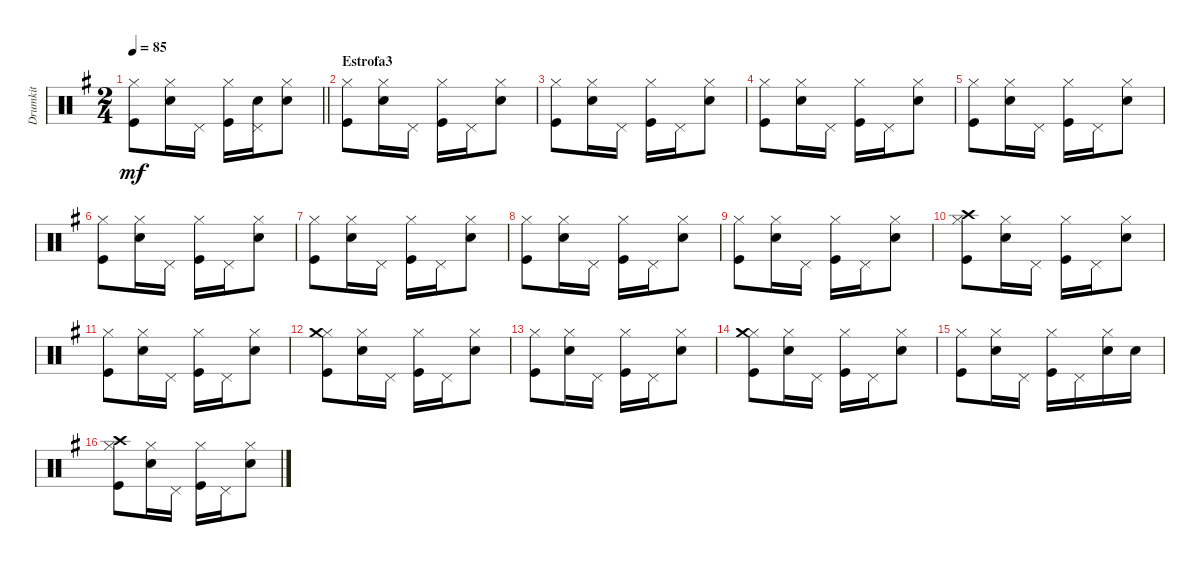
\track ("Drumkit" "Drumkit") {instrument percussion}
\staff {score}
\articulation defaults
\ts (2 4)
\tempo 85
\clef neutral
\barLineRight lightlight
\ks g
("Kick (hit)" "Hi-Hat (closed)").8{dy mf} ("Snare (hit) 2" "Hi-Hat (closed)").16 "Pedal Hi-Hat (hit)".16 ("Kick (hit)" "Hi-Hat (closed)").16 ("Pedal Hi-Hat (hit)" "Snare (hit) 2").16 ("Snare (hit) 2" "Hi-Hat (closed)").8 |
\section ("" "Estrofa3")
("Kick (hit)" "Hi-Hat (closed)").8 ("Snare (hit) 2" "Hi-Hat (closed)").16 "Pedal Hi-Hat (hit)".16 ("Kick (hit)" "Hi-Hat (closed)").16 "Pedal Hi-Hat (hit)".16 ("Snare (hit) 2" "Hi-Hat (closed)").8 |
("Kick (hit)" "Hi-Hat (closed)").8 ("Snare (hit) 2" "Hi-Hat (closed)").16 "Pedal Hi-Hat (hit)".16 ("Kick (hit)" "Hi-Hat (closed)").16 "Pedal Hi-Hat (hit)".16 ("Snare (hit) 2" "Hi-Hat (closed)").8 |
("Kick (hit)" "Hi-Hat (closed)").8 ("Snare (hit) 2" "Hi-Hat (closed)").16 "Pedal Hi-Hat (hit)".16 ("Kick (hit)" "Hi-Hat (closed)").16 "Pedal Hi-Hat (hit)".16 ("Snare (hit) 2" "Hi-Hat (closed)").8 |
("Kick (hit)" "Hi-Hat (closed)").8 ("Snare (hit) 2" "Hi-Hat (closed)").16 "Pedal Hi-Hat (hit)".16 ("Kick (hit)" "Hi-Hat (closed)").16 "Pedal Hi-Hat (hit)".16 ("Snare (hit) 2" "Hi-Hat (closed)").8 |
("Kick (hit)" "Hi-Hat (closed)").8 ("Snare (hit) 2" "Hi-Hat (closed)").16 "Pedal Hi-Hat (hit)".16 ("Kick (hit)" "Hi-Hat (closed)").16 "Pedal Hi-Hat (hit)".16 ("Snare (hit) 2" "Hi-Hat (closed)").8 |
("Kick (hit)" "Hi-Hat (closed)").8 ("Snare (hit) 2" "Hi-Hat (closed)").16 "Pedal Hi-Hat (hit)".16 ("Kick (hit)" "Hi-Hat (closed)").16 "Pedal Hi-Hat (hit)".16 ("Snare (hit) 2" "Hi-Hat (closed)").8 |
("Kick (hit)" "Hi-Hat (closed)").8 ("Snare (hit) 2" "Hi-Hat (closed)").16 "Pedal Hi-Hat (hit)".16 ("Kick (hit)" "Hi-Hat (closed)").16 "Pedal Hi-Hat (hit)".16 ("Snare (hit) 2" "Hi-Hat (closed)").8 |
("Kick (hit)" "Hi-Hat (closed)").8 ("Snare (hit) 2" "Hi-Hat (closed)").16 "Pedal Hi-Hat (hit)".16 ("Kick (hit)" "Hi-Hat (closed)").16 "Pedal Hi-Hat (hit)".16 ("Snare (hit) 2" "Hi-Hat (closed)").8 |
("Kick (hit)" "Hi-Hat (closed)" "Crash high (hit)").8 ("Snare (hit) 2" "Hi-Hat (closed)").16 "Pedal Hi-Hat (hit)".16 ("Kick (hit)" "Hi-Hat (closed)").16 "Pedal Hi-Hat (hit)".16 ("Snare (hit) 2" "Hi-Hat (closed)").8 |
("Kick (hit)" "Hi-Hat (closed)").8 ("Snare (hit) 2" "Hi-Hat (closed)").16 "Pedal Hi-Hat (hit)".16 ("Kick (hit)" "Hi-Hat (closed)").16 "Pedal Hi-Hat (hit)".16 ("Snare (hit) 2" "Hi-Hat (closed)").8 |
("Kick (hit)" "Hi-Hat (closed)" "Crash medium (hit)").8 ("Snare (hit) 2" "Hi-Hat (closed)").16 "Pedal Hi-Hat (hit)".16 ("Kick (hit)" "Hi-Hat (closed)").16 "Pedal Hi-Hat (hit)".16 ("Snare (hit) 2" "Hi-Hat (closed)").8 |
("Kick (hit)" "Hi-Hat (closed)").8 ("Snare (hit) 2" "Hi-Hat (closed)").16 "Pedal Hi-Hat (hit)".16 ("Kick (hit)" "Hi-Hat (closed)").16 "Pedal Hi-Hat (hit)".16 ("Snare (hit) 2" "Hi-Hat (closed)").8 |
("Kick (hit)" "Hi-Hat (closed)" "Crash medium (hit)").8 ("Snare (hit) 2" "Hi-Hat (closed)").16 "Pedal Hi-Hat (hit)".16 ("Kick (hit)" "Hi-Hat (closed)").16 "Pedal Hi-Hat (hit)".16 ("Snare (hit) 2" "Hi-Hat (closed)").8 |
("Kick (hit)" "Hi-Hat (closed)").8 ("Snare (hit) 2" "Hi-Hat (closed)").16 "Pedal Hi-Hat (hit)".16 ("Kick (hit)" "Hi-Hat (closed)").16 "Pedal Hi-Hat (hit)".16 ("Snare (hit) 2" "Hi-Hat (closed)").16 "Snare (hit) 2".16 |
("Kick (hit)" "Hi-Hat (closed)" "Crash high (hit)").8 ("Snare (hit) 2" "Hi-Hat (closed)").16 "Pedal Hi-Hat (hit)".16 ("Kick (hit)" "Hi-Hat (closed)").16 "Pedal Hi-Hat (hit)".16 ("Snare (hit) 2" "Hi-Hat (closed)").8
